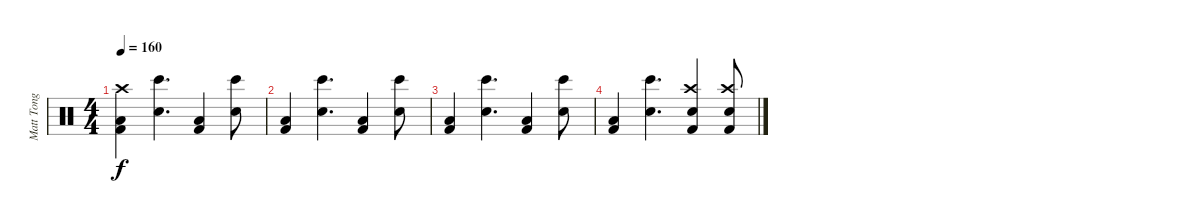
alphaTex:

\track ("Matt Tong - Drums" "Matt Tong ") {instrument percussion}
\staff {score}
\articulation defaults
\ts (4 4)
\tempo 160
\clef neutral
\ks c
("Kick (hit) 2" "Low Floor Tom (hit)" "Crash high (hit)").4{dy f} ("Bongo High (hit)" "Snare (hit) 2").4{d} ("Kick (hit) 2" "Low Floor Tom (hit)").4 ("Bongo High (hit)" "Snare (hit) 2").8 |
("Kick (hit) 2" "Low Floor Tom (hit)").4 ("Bongo High (hit)" "Snare (hit) 2").4{d} ("Kick (hit) 2" "Low Floor Tom (hit)").4 ("Bongo High (hit)" "Snare (hit) 2").8 |
("Kick (hit) 2" "Low Floor Tom (hit)").4 ("Bongo High (hit)" "Snare (hit) 2").4{d} ("Kick (hit) 2" "Low Floor Tom (hit)").4 ("Bongo High (hit)" "Snare (hit) 2").8 |
("Kick (hit) 2" "Low Floor Tom (hit)").4 ("Bongo High (hit)" "Snare (hit) 2").4{d} ("Kick (hit) 2" "Snare (hit) 2" "Crash high (hit)").4 ("Kick (hit) 2" "Snare (hit) 2" "Crash high (hit)").8
